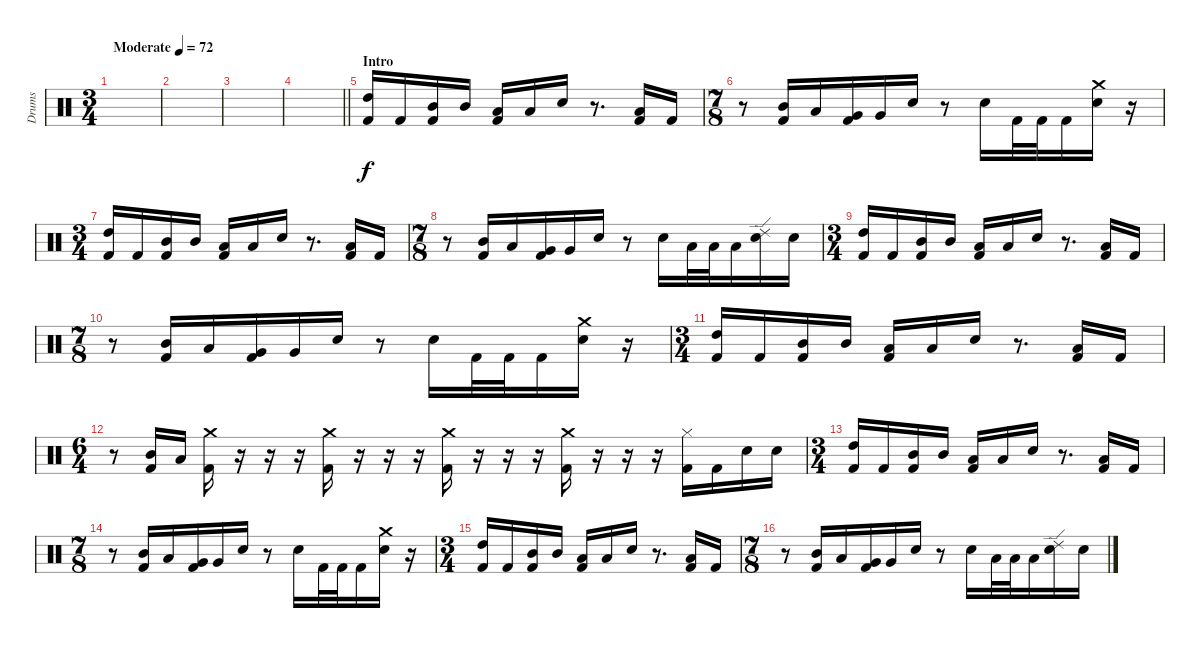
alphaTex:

\track ("Drums" "Drums") {instrument percussion}
\staff {score}
\articulation defaults
\ts (3 4)
\tempo (72 "Moderate")
\clef neutral
\ks c
|
|
|
\barLineRight lightlight
|
\section ("" "Intro")
("High Tom (hit)" "Kick (hit) 2").16 "Kick (hit) 2".16 ("Mid Tom (hit)" "Kick (hit) 2").16 "Mid Tom (hit)".16 ("Low Tom (hit)" "Kick (hit) 2").16 "Low Tom (hit)".16 "Snare (hit) 2".16 r.8{d} ("Low Tom (hit)" "Kick (hit) 2").16 "Kick (hit) 2".16 |
\ts (7 8)
r.8 ("Mid Tom (hit)" "Kick (hit) 2").16 "Low Tom (hit)".16 ("Very Low Tom (hit)" "Kick (hit) 2").16 "Very Low Tom (hit)".16 "Snare (hit) 2".16 r.8 "Snare (hit) 2".16 "Kick (hit) 2".32 "Kick (hit) 2".32 "Kick (hit) 2".16 ("Crash medium (hit)" "Snare (hit) 2").16 r.16 |
\ts (3 4)
("High Tom (hit)" "Kick (hit) 2").16 "Kick (hit) 2".16 ("Mid Tom (hit)" "Kick (hit) 2").16 "Mid Tom (hit)".16 ("Low Tom (hit)" "Kick (hit) 2").16 "Low Tom (hit)".16 "Snare (hit) 2".16 r.8{d} ("Low Tom (hit)" "Kick (hit) 2").16 "Kick (hit) 2".16 |
\ts (7 8)
r.8 ("Mid Tom (hit)" "Kick (hit) 2").16 "Low Tom (hit)".16 ("Very Low Tom (hit)" "Kick (hit) 2").16 "Very Low Tom (hit)".16 "Snare (hit) 2".16 r.8 "Snare (hit) 2".16 "Low Tom (hit)".32 "Low Tom (hit)".32 "Low Tom (hit)".16 ("Ride (edge) 2" "Snare (hit) 2").16 "Snare (hit) 2".16 |
\ts (3 4)
("High Tom (hit)" "Kick (hit) 2").16 "Kick (hit) 2".16 ("Mid Tom (hit)" "Kick (hit) 2").16 "Mid Tom (hit)".16 ("Low Tom (hit)" "Kick (hit) 2").16 "Low Tom (hit)".16 "Snare (hit) 2".16 r.8{d} ("Low Tom (hit)" "Kick (hit) 2").16 "Kick (hit) 2".16 |
\ts (7 8)
r.8 ("Mid Tom (hit)" "Kick (hit) 2").16 "Low Tom (hit)".16 ("Very Low Tom (hit)" "Kick (hit) 2").16 "Very Low Tom (hit)".16 "Snare (hit) 2".16 r.8 "Snare (hit) 2".16 "Kick (hit) 2".32 "Kick (hit) 2".32 "Kick (hit) 2".16 ("Crash medium (hit)" "Snare (hit) 2").16 r.16 |
\ts (3 4)
("High Tom (hit)" "Kick (hit) 2").16 "Kick (hit) 2".16 ("Mid Tom (hit)" "Kick (hit) 2").16 "Mid Tom (hit)".16 ("Low Tom (hit)" "Kick (hit) 2").16 "Low Tom (hit)".16 "Snare (hit) 2".16 r.8{d} ("Low Tom (hit)" "Kick (hit) 2").16 "Kick (hit) 2".16 |
\ts (6 4)
r.8 ("Mid Tom (hit)" "Kick (hit) 2").16 "Low Tom (hit)".16 ("Crash medium (hit)" "Kick (hit) 2").16 r.16 r.16 r.16 ("Crash medium (hit)" "Kick (hit) 2").16 r.16 r.16 r.16 ("Crash medium (hit)" "Kick (hit) 2").16 r.16 r.16 r.16 ("Crash medium (hit)" "Kick (hit) 2").16 r.16 r.16 r.16 ("Hi-Hat (closed)" "Kick (hit) 2").16 "Kick (hit) 2".16 "Snare (hit) 2".16 "Snare (hit) 2".16 |
\ts (3 4)
("High Tom (hit)" "Kick (hit) 2").16 "Kick (hit) 2".16 ("Mid Tom (hit)" "Kick (hit) 2").16 "Mid Tom (hit)".16 ("Low Tom (hit)" "Kick (hit) 2").16 "Low Tom (hit)".16 "Snare (hit) 2".16 r.8{d} ("Low Tom (hit)" "Kick (hit) 2").16 "Kick (hit) 2".16 |
\ts (7 8)
r.8 ("Mid Tom (hit)" "Kick (hit) 2").16 "Low Tom (hit)".16 ("Very Low Tom (hit)" "Kick (hit) 2").16 "Very Low Tom (hit)".16 "Snare (hit) 2".16 r.8 "Snare (hit) 2".16 "Kick (hit) 2".32 "Kick (hit) 2".32 "Kick (hit) 2".16 ("Crash medium (hit)" "Snare (hit) 2").16 r.16 |
\ts (3 4)
("High Tom (hit)" "Kick (hit) 2").16 "Kick (hit) 2".16 ("Mid Tom (hit)" "Kick (hit) 2").16 "Mid Tom (hit)".16 ("Low Tom (hit)" "Kick (hit) 2").16 "Low Tom (hit)".16 "Snare (hit) 2".16 r.8{d} ("Low Tom (hit)" "Kick (hit) 2").16 "Kick (hit) 2".16 |
\ts (7 8)
r.8 ("Mid Tom (hit)" "Kick (hit) 2").16 "Low Tom (hit)".16 ("Very Low Tom (hit)" "Kick (hit) 2").16 "Very Low Tom (hit)".16 "Snare (hit) 2".16 r.8 "Snare (hit) 2".16 "Low Tom (hit)".32 "Low Tom (hit)".32 "Low Tom (hit)".16 ("Ride (edge) 2" "Snare (hit) 2").16 "Snare (hit) 2".16
